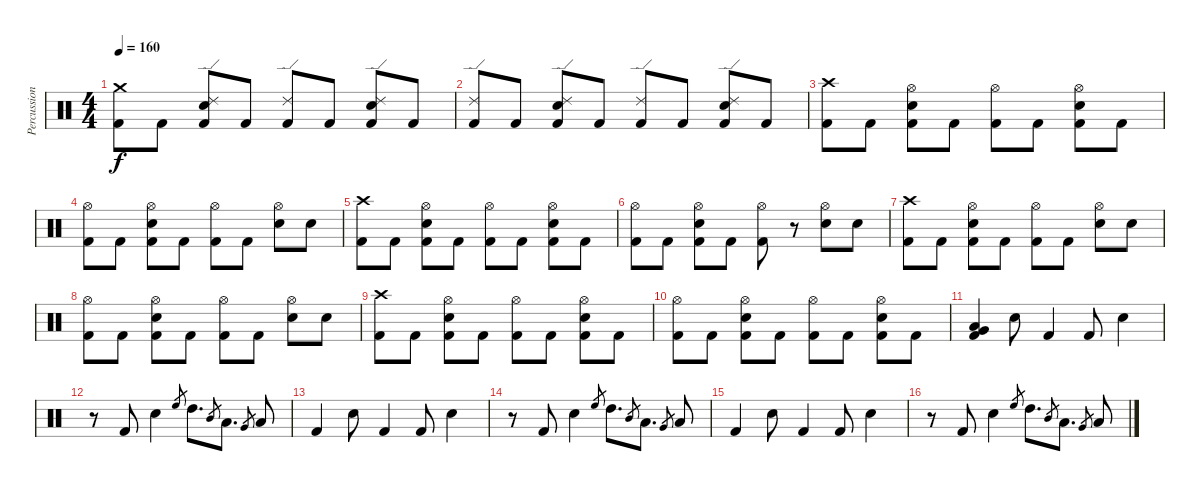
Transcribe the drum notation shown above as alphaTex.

\track ("Percussion" "Percussion") {instrument percussion}
\staff {score}
\articulation defaults
\ts (4 4)
\tempo 160
\clef neutral
\ks c
("Crash medium (hit)" "Kick (hit) 2").8{dy f} "Kick (hit) 2".8 ("Ride (edge) 2" "Electric Snare (hit)" "Kick (hit) 2").8 "Kick (hit) 2".8 ("Ride (edge) 2" "Kick (hit) 2").8 "Kick (hit) 2".8 ("Ride (edge) 2" "Electric Snare (hit)" "Kick (hit) 2").8 "Kick (hit) 2".8 |
("Ride (edge) 2" "Kick (hit) 2").8 "Kick (hit) 2".8 ("Ride (edge) 2" "Electric Snare (hit)" "Kick (hit) 2").8 "Kick (hit) 2".8 ("Ride (edge) 2" "Kick (hit) 2").8 "Kick (hit) 2".8 ("Ride (edge) 2" "Electric Snare (hit)" "Kick (hit) 2").8 "Kick (hit) 2".8 |
("Crash high (hit)" "Kick (hit) 2").8 "Kick (hit) 2".8 ("Hi-Hat (open)" "Electric Snare (hit)" "Kick (hit) 2").8 "Kick (hit) 2".8 ("Hi-Hat (open)" "Kick (hit) 2").8 "Kick (hit) 2".8 ("Hi-Hat (open)" "Electric Snare (hit)" "Kick (hit) 2").8 "Kick (hit) 2".8 |
("Hi-Hat (open)" "Kick (hit) 2").8 "Kick (hit) 2".8 ("Hi-Hat (open)" "Electric Snare (hit)" "Kick (hit) 2").8 "Kick (hit) 2".8 ("Hi-Hat (open)" "Kick (hit) 2").8 "Kick (hit) 2".8 ("Hi-Hat (open)" "Electric Snare (hit)").8 "Electric Snare (hit)".8 |
("Crash high (hit)" "Kick (hit) 2").8 "Kick (hit) 2".8 ("Hi-Hat (open)" "Electric Snare (hit)" "Kick (hit) 2").8 "Kick (hit) 2".8 ("Hi-Hat (open)" "Kick (hit) 2").8 "Kick (hit) 2".8 ("Hi-Hat (open)" "Electric Snare (hit)" "Kick (hit) 2").8 "Kick (hit) 2".8 |
("Hi-Hat (open)" "Kick (hit) 2").8 "Kick (hit) 2".8 ("Hi-Hat (open)" "Electric Snare (hit)" "Kick (hit) 2").8 "Kick (hit) 2".8 ("Hi-Hat (open)" "Kick (hit) 2").8 r.8 ("Hi-Hat (open)" "Electric Snare (hit)").8 "Electric Snare (hit)".8 |
("Crash high (hit)" "Kick (hit) 2").8 "Kick (hit) 2".8 ("Hi-Hat (open)" "Electric Snare (hit)" "Kick (hit) 2").8 "Kick (hit) 2".8 ("Hi-Hat (open)" "Kick (hit) 2").8 "Kick (hit) 2".8 ("Hi-Hat (open)" "Electric Snare (hit)").8 "Electric Snare (hit)".8 |
("Hi-Hat (open)" "Kick (hit) 2").8 "Kick (hit) 2".8 ("Hi-Hat (open)" "Electric Snare (hit)" "Kick (hit) 2").8 "Kick (hit) 2".8 ("Hi-Hat (open)" "Kick (hit) 2").8 "Kick (hit) 2".8 ("Hi-Hat (open)" "Electric Snare (hit)").8 "Electric Snare (hit)".8 |
("Crash high (hit)" "Kick (hit) 2").8 "Kick (hit) 2".8 ("Hi-Hat (open)" "Electric Snare (hit)" "Kick (hit) 2").8 "Kick (hit) 2".8 ("Hi-Hat (open)" "Kick (hit) 2").8 "Kick (hit) 2".8 ("Hi-Hat (open)" "Electric Snare (hit)" "Kick (hit) 2").8 "Kick (hit) 2".8 |
("Hi-Hat (open)" "Kick (hit) 2").8 "Kick (hit) 2".8 ("Hi-Hat (open)" "Electric Snare (hit)" "Kick (hit) 2").8 "Kick (hit) 2".8 ("Hi-Hat (open)" "Kick (hit) 2").8 "Kick (hit) 2".8 ("Hi-Hat (open)" "Electric Snare (hit)" "Kick (hit) 2").8 "Kick (hit) 2".8 |
("Low Tom (hit)" "Very Low Tom (hit)" "Kick (hit) 2").4 "Electric Snare (hit)".8 "Kick (hit) 2".4 "Kick (hit) 2".8 "Electric Snare (hit)".4 |
r.8 "Kick (hit) 2".8 "Electric Snare (hit)".4 "High Floor Tom (hit)".8{gr} "High Tom (hit)".8{d} "Mid Tom (hit)".8{gr} "Low Tom (hit)".8{d} "Very Low Tom (hit)".8{gr} "Low Floor Tom (hit)".8 |
"Kick (hit) 2".4 "Electric Snare (hit)".8 "Kick (hit) 2".4 "Kick (hit) 2".8 "Electric Snare (hit)".4 |
r.8 "Kick (hit) 2".8 "Electric Snare (hit)".4 "High Floor Tom (hit)".8{gr} "High Tom (hit)".8{d} "Mid Tom (hit)".8{gr} "Low Tom (hit)".8{d} "Very Low Tom (hit)".8{gr} "Low Floor Tom (hit)".8 |
"Kick (hit) 2".4 "Electric Snare (hit)".8 "Kick (hit) 2".4 "Kick (hit) 2".8 "Electric Snare (hit)".4 |
r.8 "Kick (hit) 2".8 "Electric Snare (hit)".4 "High Floor Tom (hit)".8{gr} "High Tom (hit)".8{d} "Mid Tom (hit)".8{gr} "Low Tom (hit)".8{d} "Very Low Tom (hit)".8{gr} "Low Floor Tom (hit)".8
